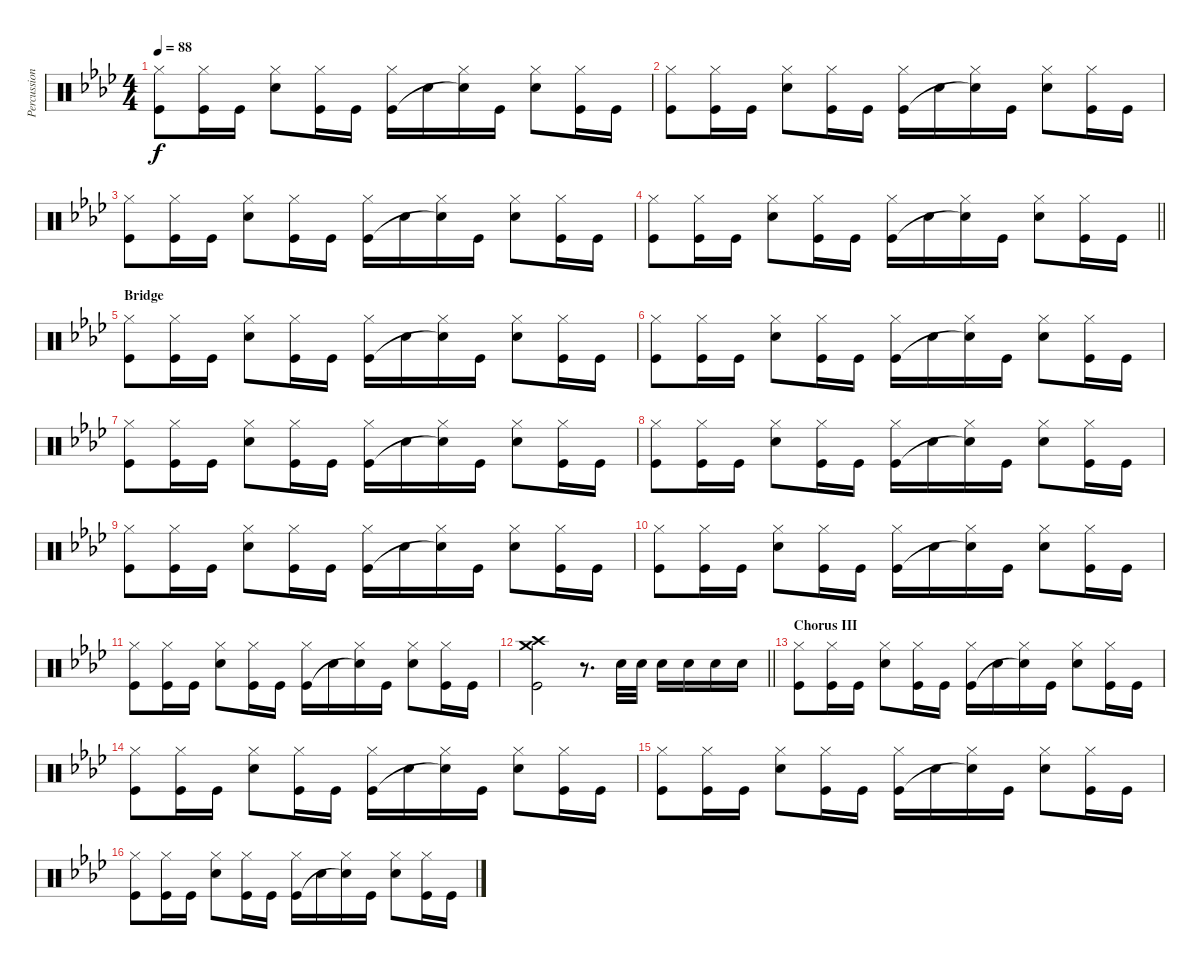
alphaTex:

\track ("Percussion" "Percussion") {instrument percussion}
\staff {score}
\articulation defaults
\ts (4 4)
\tempo 88
\clef neutral
\ks ab
("Hi-Hat (closed)" "Kick (hit)").8{dy f} ("Hi-Hat (closed)" "Kick (hit)").16 "Kick (hit)".16 ("Hi-Hat (closed)" "Snare (hit) 2").8 ("Hi-Hat (closed)" "Kick (hit)").16 "Kick (hit)".16 ("Hi-Hat (closed)" "Kick (hit)").16 "Snare (hit) 2".16 ("Hi-Hat (closed)" "Snare (hit) 2"{t}).16 "Kick (hit)".16 ("Hi-Hat (closed)" "Snare (hit) 2").8 ("Hi-Hat (closed)" "Kick (hit)").16 "Kick (hit)".16 |
("Hi-Hat (closed)" "Kick (hit)").8 ("Hi-Hat (closed)" "Kick (hit)").16 "Kick (hit)".16 ("Hi-Hat (closed)" "Snare (hit) 2").8 ("Hi-Hat (closed)" "Kick (hit)").16 "Kick (hit)".16 ("Hi-Hat (closed)" "Kick (hit)").16 "Snare (hit) 2".16 ("Hi-Hat (closed)" "Snare (hit) 2"{t}).16 "Kick (hit)".16 ("Hi-Hat (closed)" "Snare (hit) 2").8 ("Hi-Hat (closed)" "Kick (hit)").16 "Kick (hit)".16 |
("Hi-Hat (closed)" "Kick (hit)").8 ("Hi-Hat (closed)" "Kick (hit)").16 "Kick (hit)".16 ("Hi-Hat (closed)" "Snare (hit) 2").8 ("Hi-Hat (closed)" "Kick (hit)").16 "Kick (hit)".16 ("Hi-Hat (closed)" "Kick (hit)").16 "Snare (hit) 2".16 ("Hi-Hat (closed)" "Snare (hit) 2"{t}).16 "Kick (hit)".16 ("Hi-Hat (closed)" "Snare (hit) 2").8 ("Hi-Hat (closed)" "Kick (hit)").16 "Kick (hit)".16 |
\barLineRight lightlight
("Hi-Hat (closed)" "Kick (hit)").8 ("Hi-Hat (closed)" "Kick (hit)").16 "Kick (hit)".16 ("Hi-Hat (closed)" "Snare (hit) 2").8 ("Hi-Hat (closed)" "Kick (hit)").16 "Kick (hit)".16 ("Hi-Hat (closed)" "Kick (hit)").16 "Snare (hit) 2".16 ("Hi-Hat (closed)" "Snare (hit) 2"{t}).16 "Kick (hit)".16 ("Hi-Hat (closed)" "Snare (hit) 2").8 ("Hi-Hat (closed)" "Kick (hit)").16 "Kick (hit)".16 |
\section ("" "Bridge")
("Hi-Hat (closed)" "Kick (hit)").8 ("Hi-Hat (closed)" "Kick (hit)").16 "Kick (hit)".16 ("Hi-Hat (closed)" "Snare (hit) 2").8 ("Hi-Hat (closed)" "Kick (hit)").16 "Kick (hit)".16 ("Hi-Hat (closed)" "Kick (hit)").16 "Snare (hit) 2".16 ("Hi-Hat (closed)" "Snare (hit) 2"{t}).16 "Kick (hit)".16 ("Hi-Hat (closed)" "Snare (hit) 2").8 ("Hi-Hat (closed)" "Kick (hit)").16 "Kick (hit)".16 |
("Hi-Hat (closed)" "Kick (hit)").8 ("Hi-Hat (closed)" "Kick (hit)").16 "Kick (hit)".16 ("Hi-Hat (closed)" "Snare (hit) 2").8 ("Hi-Hat (closed)" "Kick (hit)").16 "Kick (hit)".16 ("Hi-Hat (closed)" "Kick (hit)").16 "Snare (hit) 2".16 ("Hi-Hat (closed)" "Snare (hit) 2"{t}).16 "Kick (hit)".16 ("Hi-Hat (closed)" "Snare (hit) 2").8 ("Hi-Hat (closed)" "Kick (hit)").16 "Kick (hit)".16 |
("Hi-Hat (closed)" "Kick (hit)").8 ("Hi-Hat (closed)" "Kick (hit)").16 "Kick (hit)".16 ("Hi-Hat (closed)" "Snare (hit) 2").8 ("Hi-Hat (closed)" "Kick (hit)").16 "Kick (hit)".16 ("Hi-Hat (closed)" "Kick (hit)").16 "Snare (hit) 2".16 ("Hi-Hat (closed)" "Snare (hit) 2"{t}).16 "Kick (hit)".16 ("Hi-Hat (closed)" "Snare (hit) 2").8 ("Hi-Hat (closed)" "Kick (hit)").16 "Kick (hit)".16 |
("Hi-Hat (closed)" "Kick (hit)").8 ("Hi-Hat (closed)" "Kick (hit)").16 "Kick (hit)".16 ("Hi-Hat (closed)" "Snare (hit) 2").8 ("Hi-Hat (closed)" "Kick (hit)").16 "Kick (hit)".16 ("Hi-Hat (closed)" "Kick (hit)").16 "Snare (hit) 2".16 ("Hi-Hat (closed)" "Snare (hit) 2"{t}).16 "Kick (hit)".16 ("Hi-Hat (closed)" "Snare (hit) 2").8 ("Hi-Hat (closed)" "Kick (hit)").16 "Kick (hit)".16 |
("Hi-Hat (closed)" "Kick (hit)").8 ("Hi-Hat (closed)" "Kick (hit)").16 "Kick (hit)".16 ("Hi-Hat (closed)" "Snare (hit) 2").8 ("Hi-Hat (closed)" "Kick (hit)").16 "Kick (hit)".16 ("Hi-Hat (closed)" "Kick (hit)").16 "Snare (hit) 2".16 ("Hi-Hat (closed)" "Snare (hit) 2"{t}).16 "Kick (hit)".16 ("Hi-Hat (closed)" "Snare (hit) 2").8 ("Hi-Hat (closed)" "Kick (hit)").16 "Kick (hit)".16 |
("Hi-Hat (closed)" "Kick (hit)").8 ("Hi-Hat (closed)" "Kick (hit)").16 "Kick (hit)".16 ("Hi-Hat (closed)" "Snare (hit) 2").8 ("Hi-Hat (closed)" "Kick (hit)").16 "Kick (hit)".16 ("Hi-Hat (closed)" "Kick (hit)").16 "Snare (hit) 2".16 ("Hi-Hat (closed)" "Snare (hit) 2"{t}).16 "Kick (hit)".16 ("Hi-Hat (closed)" "Snare (hit) 2").8 ("Hi-Hat (closed)" "Kick (hit)").16 "Kick (hit)".16 |
("Hi-Hat (closed)" "Kick (hit)").8 ("Hi-Hat (closed)" "Kick (hit)").16 "Kick (hit)".16 ("Hi-Hat (closed)" "Snare (hit) 2").8 ("Hi-Hat (closed)" "Kick (hit)").16 "Kick (hit)".16 ("Hi-Hat (closed)" "Kick (hit)").16 "Snare (hit) 2".16 ("Hi-Hat (closed)" "Snare (hit) 2"{t}).16 "Kick (hit)".16 ("Hi-Hat (closed)" "Snare (hit) 2").8 ("Hi-Hat (closed)" "Kick (hit)").16 "Kick (hit)".16 |
\barLineRight lightlight
("Crash high (hit)" "Crash medium (hit)" "Kick (hit)").2 r.8{d} "Snare (hit) 2".32 "Snare (hit) 2".32 "Snare (hit) 2".16 "Snare (hit) 2".16 "Snare (hit) 2".16 "Snare (hit) 2".16 |
\section ("" "Chorus III")
("Hi-Hat (closed)" "Kick (hit)").8 ("Hi-Hat (closed)" "Kick (hit)").16 "Kick (hit)".16 ("Hi-Hat (closed)" "Snare (hit) 2").8 ("Hi-Hat (closed)" "Kick (hit)").16 "Kick (hit)".16 ("Hi-Hat (closed)" "Kick (hit)").16 "Snare (hit) 2".16 ("Hi-Hat (closed)" "Snare (hit) 2"{t}).16 "Kick (hit)".16 ("Hi-Hat (closed)" "Snare (hit) 2").8 ("Hi-Hat (closed)" "Kick (hit)").16 "Kick (hit)".16 |
("Hi-Hat (closed)" "Kick (hit)").8 ("Hi-Hat (closed)" "Kick (hit)").16 "Kick (hit)".16 ("Hi-Hat (closed)" "Snare (hit) 2").8 ("Hi-Hat (closed)" "Kick (hit)").16 "Kick (hit)".16 ("Hi-Hat (closed)" "Kick (hit)").16 "Snare (hit) 2".16 ("Hi-Hat (closed)" "Snare (hit) 2"{t}).16 "Kick (hit)".16 ("Hi-Hat (closed)" "Snare (hit) 2").8 ("Hi-Hat (closed)" "Kick (hit)").16 "Kick (hit)".16 |
("Hi-Hat (closed)" "Kick (hit)").8 ("Hi-Hat (closed)" "Kick (hit)").16 "Kick (hit)".16 ("Hi-Hat (closed)" "Snare (hit) 2").8 ("Hi-Hat (closed)" "Kick (hit)").16 "Kick (hit)".16 ("Hi-Hat (closed)" "Kick (hit)").16 "Snare (hit) 2".16 ("Hi-Hat (closed)" "Snare (hit) 2"{t}).16 "Kick (hit)".16 ("Hi-Hat (closed)" "Snare (hit) 2").8 ("Hi-Hat (closed)" "Kick (hit)").16 "Kick (hit)".16 |
("Hi-Hat (closed)" "Kick (hit)").8 ("Hi-Hat (closed)" "Kick (hit)").16 "Kick (hit)".16 ("Hi-Hat (closed)" "Snare (hit) 2").8 ("Hi-Hat (closed)" "Kick (hit)").16 "Kick (hit)".16 ("Hi-Hat (closed)" "Kick (hit)").16 "Snare (hit) 2".16 ("Hi-Hat (closed)" "Snare (hit) 2"{t}).16 "Kick (hit)".16 ("Hi-Hat (closed)" "Snare (hit) 2").8 ("Hi-Hat (closed)" "Kick (hit)").16 "Kick (hit)".16
